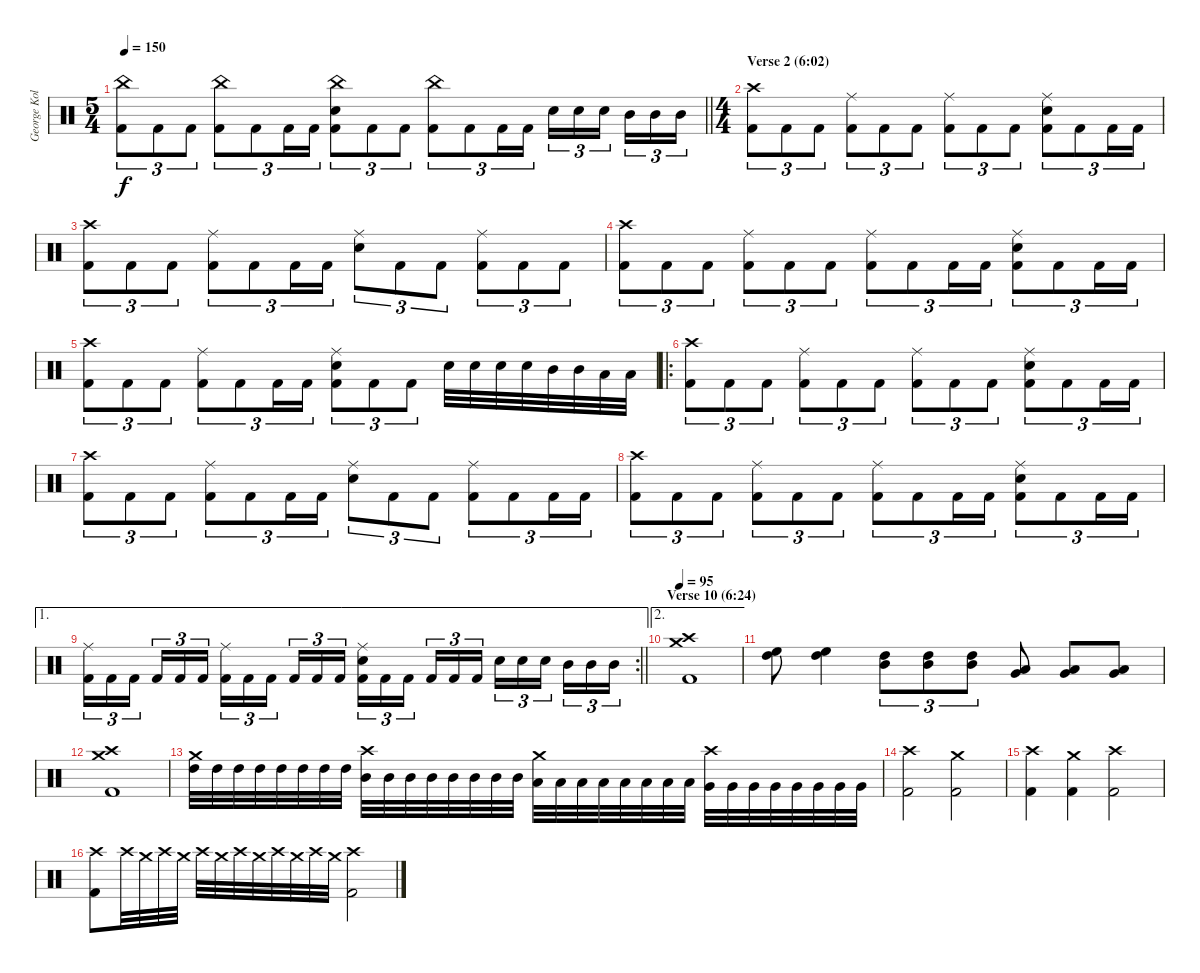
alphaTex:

\track ("George Kollias" "George Kol") {instrument percussion}
\staff {score}
\articulation defaults
\ts (5 4)
\tempo 150
\clef neutral
\barLineRight lightlight
\ks c
("China (hit)" "Kick (hit) 2").8{tu (3 2) dy f} "Kick (hit) 2".8{tu (3 2)} "Kick (hit) 2".8{tu (3 2)} ("China (hit)" "Kick (hit) 2").8{tu (3 2)} "Kick (hit) 2".8{tu (3 2)} "Kick (hit) 2".16{tu (3 2)} "Kick (hit) 2".16{tu (3 2)} ("China (hit)" "Electric Snare (hit)" "Kick (hit) 2").8{tu (3 2)} "Kick (hit) 2".8{tu (3 2)} "Kick (hit) 2".8{tu (3 2)} ("China (hit)" "Kick (hit) 2").8{tu (3 2)} "Kick (hit) 2".8{tu (3 2)} "Kick (hit) 2".16{tu (3 2)} "Kick (hit) 2".16{tu (3 2)} "Electric Snare (hit)".16{tu (3 2)} "Electric Snare (hit)".16{tu (3 2)} "Electric Snare (hit)".16{tu (3 2) beam splitsecondary} "Mid Tom (hit)".16{tu (3 2)} "Mid Tom (hit)".16{tu (3 2)} "Mid Tom (hit)".16{tu (3 2)} |
\ts (4 4)
\section ("" "Verse 2 (6:02)")
("Crash high (hit)" "Kick (hit) 2").8{tu (3 2)} "Kick (hit) 2".8{tu (3 2)} "Kick (hit) 2".8{tu (3 2)} ("Ride (middle)" "Kick (hit) 2").8{tu (3 2)} "Kick (hit) 2".8{tu (3 2)} "Kick (hit) 2".8{tu (3 2)} ("Ride (middle)" "Kick (hit) 2").8{tu (3 2)} "Kick (hit) 2".8{tu (3 2)} "Kick (hit) 2".8{tu (3 2)} ("Ride (middle)" "Electric Snare (hit)" "Kick (hit) 2").8{tu (3 2)} "Kick (hit) 2".8{tu (3 2)} "Kick (hit) 2".16{tu (3 2)} "Kick (hit) 2".16{tu (3 2)} |
("Crash high (hit)" "Kick (hit) 2").8{tu (3 2)} "Kick (hit) 2".8{tu (3 2)} "Kick (hit) 2".8{tu (3 2)} ("Ride (middle)" "Kick (hit) 2").8{tu (3 2)} "Kick (hit) 2".8{tu (3 2)} "Kick (hit) 2".16{tu (3 2)} "Kick (hit) 2".16{tu (3 2)} ("Ride (middle)" "Electric Snare (hit)").8{tu (3 2)} "Kick (hit) 2".8{tu (3 2)} "Kick (hit) 2".8{tu (3 2)} ("Ride (middle)" "Kick (hit) 2").8{tu (3 2)} "Kick (hit) 2".8{tu (3 2)} "Kick (hit) 2".8{tu (3 2)} |
("Crash high (hit)" "Kick (hit) 2").8{tu (3 2)} "Kick (hit) 2".8{tu (3 2)} "Kick (hit) 2".8{tu (3 2)} ("Ride (middle)" "Kick (hit) 2").8{tu (3 2)} "Kick (hit) 2".8{tu (3 2)} "Kick (hit) 2".8{tu (3 2)} ("Ride (middle)" "Kick (hit) 2").8{tu (3 2)} "Kick (hit) 2".8{tu (3 2)} "Kick (hit) 2".16{tu (3 2)} "Kick (hit) 2".16{tu (3 2)} ("Ride (middle)" "Electric Snare (hit)" "Kick (hit) 2").8{tu (3 2)} "Kick (hit) 2".8{tu (3 2)} "Kick (hit) 2".16{tu (3 2)} "Kick (hit) 2".16{tu (3 2)} |
("Crash high (hit)" "Kick (hit) 2").8{tu (3 2)} "Kick (hit) 2".8{tu (3 2)} "Kick (hit) 2".8{tu (3 2)} ("Ride (middle)" "Kick (hit) 2").8{tu (3 2)} "Kick (hit) 2".8{tu (3 2)} "Kick (hit) 2".16{tu (3 2)} "Kick (hit) 2".16{tu (3 2)} ("Ride (middle)" "Electric Snare (hit)" "Kick (hit) 2").8{tu (3 2)} "Kick (hit) 2".8{tu (3 2)} "Kick (hit) 2".8{tu (3 2)} "Electric Snare (hit)".32 "Electric Snare (hit)".32 "Electric Snare (hit)".32 "Electric Snare (hit)".32 "Mid Tom (hit)".32 "Mid Tom (hit)".32 "Low Tom (hit)".32 "Low Tom (hit)".32 |
\ro
("Crash high (hit)" "Kick (hit) 2").8{tu (3 2)} "Kick (hit) 2".8{tu (3 2)} "Kick (hit) 2".8{tu (3 2)} ("Ride (middle)" "Kick (hit) 2").8{tu (3 2)} "Kick (hit) 2".8{tu (3 2)} "Kick (hit) 2".8{tu (3 2)} ("Ride (middle)" "Kick (hit) 2").8{tu (3 2)} "Kick (hit) 2".8{tu (3 2)} "Kick (hit) 2".8{tu (3 2)} ("Ride (middle)" "Electric Snare (hit)" "Kick (hit) 2").8{tu (3 2)} "Kick (hit) 2".8{tu (3 2)} "Kick (hit) 2".16{tu (3 2)} "Kick (hit) 2".16{tu (3 2)} |
("Crash high (hit)" "Kick (hit) 2").8{tu (3 2)} "Kick (hit) 2".8{tu (3 2)} "Kick (hit) 2".8{tu (3 2)} ("Ride (middle)" "Kick (hit) 2").8{tu (3 2)} "Kick (hit) 2".8{tu (3 2)} "Kick (hit) 2".16{tu (3 2)} "Kick (hit) 2".16{tu (3 2)} ("Ride (middle)" "Electric Snare (hit)").8{tu (3 2)} "Kick (hit) 2".8{tu (3 2)} "Kick (hit) 2".8{tu (3 2)} ("Ride (middle)" "Kick (hit) 2").8{tu (3 2)} "Kick (hit) 2".8{tu (3 2)} "Kick (hit) 2".16{tu (3 2)} "Kick (hit) 2".16{tu (3 2)} |
("Crash high (hit)" "Kick (hit) 2").8{tu (3 2)} "Kick (hit) 2".8{tu (3 2)} "Kick (hit) 2".8{tu (3 2)} ("Ride (middle)" "Kick (hit) 2").8{tu (3 2)} "Kick (hit) 2".8{tu (3 2)} "Kick (hit) 2".8{tu (3 2)} ("Ride (middle)" "Kick (hit) 2").8{tu (3 2)} "Kick (hit) 2".8{tu (3 2)} "Kick (hit) 2".16{tu (3 2)} "Kick (hit) 2".16{tu (3 2)} ("Ride (middle)" "Electric Snare (hit)" "Kick (hit) 2").8{tu (3 2)} "Kick (hit) 2".8{tu (3 2)} "Kick (hit) 2".16{tu (3 2)} "Kick (hit) 2".16{tu (3 2)} |
\ae 1
\rc 2
\barLineRight lightlight
("Ride (middle)" "Kick (hit) 2").16{tu (3 2)} "Kick (hit) 2".16{tu (3 2)} "Kick (hit) 2".16{tu (3 2) beam splitsecondary} "Kick (hit) 2".16{tu (3 2)} "Kick (hit) 2".16{tu (3 2)} "Kick (hit) 2".16{tu (3 2)} ("Ride (middle)" "Kick (hit) 2").16{tu (3 2)} "Kick (hit) 2".16{tu (3 2)} "Kick (hit) 2".16{tu (3 2) beam splitsecondary} "Kick (hit) 2".16{tu (3 2)} "Kick (hit) 2".16{tu (3 2)} "Kick (hit) 2".16{tu (3 2)} ("Ride (middle)" "Electric Snare (hit)" "Kick (hit) 2").16{tu (3 2)} "Kick (hit) 2".16{tu (3 2)} "Kick (hit) 2".16{tu (3 2) beam splitsecondary} "Kick (hit) 2".16{tu (3 2)} "Kick (hit) 2".16{tu (3 2)} "Kick (hit) 2".16{tu (3 2)} "Electric Snare (hit)".16{tu (3 2)} "Electric Snare (hit)".16{tu (3 2)} "Electric Snare (hit)".16{tu (3 2) beam splitsecondary} "Mid Tom (hit)".16{tu (3 2)} "Mid Tom (hit)".16{tu (3 2)} "Mid Tom (hit)".16{tu (3 2)} |
\ae 2
\section ("" "Verse 10 (6:24)")
\tempo 95
("Crash high (hit)" "Crash medium (hit)" "Kick (hit) 2").1 |
("High Tom (hit)" "High Floor Tom (hit)").8 ("High Tom (hit)" "High Floor Tom (hit)").4 ("Mid Tom (hit)" "High Tom (hit)").8{tu (3 2)} ("Mid Tom (hit)" "High Tom (hit)").8{tu (3 2)} ("Mid Tom (hit)" "High Tom (hit)").8{tu (3 2)} ("Very Low Tom (hit)" "Low Tom (hit)").8 ("Low Floor Tom (hit)" "Very Low Tom (hit)").8 ("Low Floor Tom (hit)" "Very Low Tom (hit)").8 |
("Crash high (hit)" "Crash medium (hit)" "Kick (hit) 2").1 |
("Crash medium (hit)" "High Tom (hit)").32 "High Tom (hit)".32 "High Tom (hit)".32 "High Tom (hit)".32 "High Tom (hit)".32 "High Tom (hit)".32 "High Tom (hit)".32 "High Tom (hit)".32 ("Crash high (hit)" "Mid Tom (hit)").32 "Mid Tom (hit)".32 "Mid Tom (hit)".32 "Mid Tom (hit)".32 "Mid Tom (hit)".32 "Mid Tom (hit)".32 "Mid Tom (hit)".32 "Mid Tom (hit)".32 ("Crash medium (hit)" "Low Tom (hit)").32 "Low Tom (hit)".32 "Low Tom (hit)".32 "Low Tom (hit)".32 "Low Tom (hit)".32 "Low Tom (hit)".32 "Low Tom (hit)".32 "Low Tom (hit)".32 ("Crash high (hit)" "Very Low Tom (hit)").32 "Very Low Tom (hit)".32 "Very Low Tom (hit)".32 "Very Low Tom (hit)".32 "Very Low Tom (hit)".32 "Very Low Tom (hit)".32 "Very Low Tom (hit)".32 "Very Low Tom (hit)".32 |
("Crash high (hit)" "Kick (hit) 2").2 ("Crash medium (hit)" "Kick (hit) 2").2 |
("Crash high (hit)" "Kick (hit) 2").4 ("Crash medium (hit)" "Kick (hit) 2").4 ("Crash high (hit)" "Kick (hit) 2").2 |
("Crash high (hit)" "Kick (hit) 2").8 "Crash high (hit)".32 "Crash medium (hit)".32 "Crash high (hit)".32 "Crash medium (hit)".32 "Crash high (hit)".32 "Crash medium (hit)".32 "Crash high (hit)".32 "Crash medium (hit)".32 "Crash high (hit)".32 "Crash medium (hit)".32 "Crash high (hit)".32 "Crash medium (hit)".32 ("Crash high (hit)" "Kick (hit) 2").2
